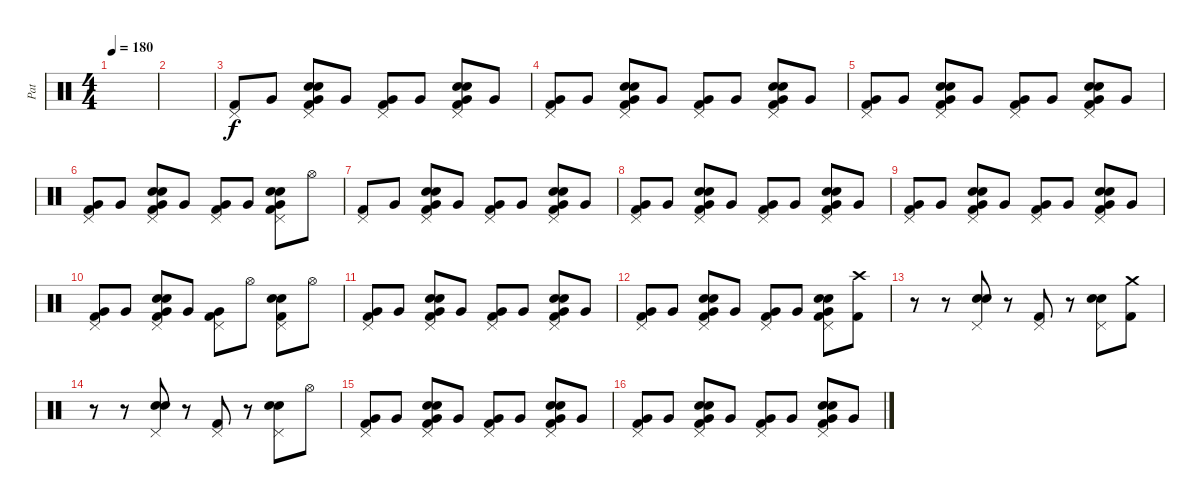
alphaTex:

\track ("Pat" "Pat") {instrument percussion}
\staff {score}
\articulation defaults
\ts (4 4)
\tempo 180
\clef neutral
\ks c
|
|
("Pedal Hi-Hat (hit)" "Kick (hit) 2").8 "Very Low Tom (hit)".8 ("Pedal Hi-Hat (hit)" "Very Low Tom (hit)" "Snare (hit) 2" "Electric Snare (hit)" "Kick (hit) 2").8 "Very Low Tom (hit)".8 ("Pedal Hi-Hat (hit)" "Very Low Tom (hit)" "Kick (hit) 2").8 "Very Low Tom (hit)".8 ("Pedal Hi-Hat (hit)" "Very Low Tom (hit)" "Snare (hit) 2" "Electric Snare (hit)" "Kick (hit) 2").8 "Very Low Tom (hit)".8 |
("Pedal Hi-Hat (hit)" "Very Low Tom (hit)" "Kick (hit) 2").8 "Very Low Tom (hit)".8 ("Pedal Hi-Hat (hit)" "Very Low Tom (hit)" "Snare (hit) 2" "Electric Snare (hit)" "Kick (hit) 2").8 "Very Low Tom (hit)".8 ("Pedal Hi-Hat (hit)" "Very Low Tom (hit)" "Kick (hit) 2").8 "Very Low Tom (hit)".8 ("Pedal Hi-Hat (hit)" "Very Low Tom (hit)" "Snare (hit) 2" "Electric Snare (hit)" "Kick (hit) 2").8 "Very Low Tom (hit)".8 |
("Pedal Hi-Hat (hit)" "Very Low Tom (hit)" "Kick (hit) 2").8 "Very Low Tom (hit)".8 ("Pedal Hi-Hat (hit)" "Very Low Tom (hit)" "Snare (hit) 2" "Electric Snare (hit)" "Kick (hit) 2").8 "Very Low Tom (hit)".8 ("Pedal Hi-Hat (hit)" "Very Low Tom (hit)" "Kick (hit) 2").8 "Very Low Tom (hit)".8 ("Pedal Hi-Hat (hit)" "Very Low Tom (hit)" "Snare (hit) 2" "Electric Snare (hit)" "Kick (hit) 2").8 "Very Low Tom (hit)".8 |
("Pedal Hi-Hat (hit)" "Very Low Tom (hit)" "Kick (hit) 2").8 "Very Low Tom (hit)".8 ("Pedal Hi-Hat (hit)" "Very Low Tom (hit)" "Snare (hit) 2" "Electric Snare (hit)" "Kick (hit) 2").8 "Very Low Tom (hit)".8 ("Pedal Hi-Hat (hit)" "Very Low Tom (hit)" "Kick (hit) 2").8 "Very Low Tom (hit)".8 ("Pedal Hi-Hat (hit)" "Very Low Tom (hit)" "Snare (hit) 2" "Electric Snare (hit)" "Kick (hit) 2").8 "Hi-Hat (open)".8 |
("Pedal Hi-Hat (hit)" "Kick (hit) 2").8 "Very Low Tom (hit)".8 ("Pedal Hi-Hat (hit)" "Very Low Tom (hit)" "Snare (hit) 2" "Electric Snare (hit)" "Kick (hit) 2").8 "Very Low Tom (hit)".8 ("Pedal Hi-Hat (hit)" "Very Low Tom (hit)" "Kick (hit) 2").8 "Very Low Tom (hit)".8 ("Pedal Hi-Hat (hit)" "Very Low Tom (hit)" "Snare (hit) 2" "Electric Snare (hit)" "Kick (hit) 2").8 "Very Low Tom (hit)".8 |
("Pedal Hi-Hat (hit)" "Very Low Tom (hit)" "Kick (hit) 2").8 "Very Low Tom (hit)".8 ("Pedal Hi-Hat (hit)" "Very Low Tom (hit)" "Snare (hit) 2" "Electric Snare (hit)" "Kick (hit) 2").8 "Very Low Tom (hit)".8 ("Pedal Hi-Hat (hit)" "Very Low Tom (hit)" "Kick (hit) 2").8 "Very Low Tom (hit)".8 ("Pedal Hi-Hat (hit)" "Very Low Tom (hit)" "Snare (hit) 2" "Electric Snare (hit)" "Kick (hit) 2").8 "Very Low Tom (hit)".8 |
("Pedal Hi-Hat (hit)" "Very Low Tom (hit)" "Kick (hit) 2").8 "Very Low Tom (hit)".8 ("Pedal Hi-Hat (hit)" "Very Low Tom (hit)" "Snare (hit) 2" "Electric Snare (hit)" "Kick (hit) 2").8 "Very Low Tom (hit)".8 ("Pedal Hi-Hat (hit)" "Very Low Tom (hit)" "Kick (hit) 2").8 "Very Low Tom (hit)".8 ("Pedal Hi-Hat (hit)" "Very Low Tom (hit)" "Snare (hit) 2" "Electric Snare (hit)" "Kick (hit) 2").8 "Very Low Tom (hit)".8 |
("Pedal Hi-Hat (hit)" "Very Low Tom (hit)" "Kick (hit) 2").8 "Very Low Tom (hit)".8 ("Pedal Hi-Hat (hit)" "Very Low Tom (hit)" "Snare (hit) 2" "Electric Snare (hit)" "Kick (hit) 2").8 "Very Low Tom (hit)".8 ("Pedal Hi-Hat (hit)" "Very Low Tom (hit)" "Kick (hit) 2").8 "Hi-Hat (open)".8 ("Pedal Hi-Hat (hit)" "Snare (hit) 2" "Electric Snare (hit)" "Kick (hit) 2").8 "Hi-Hat (open)".8 |
("Pedal Hi-Hat (hit)" "Very Low Tom (hit)" "Kick (hit) 2").8 "Very Low Tom (hit)".8 ("Pedal Hi-Hat (hit)" "Very Low Tom (hit)" "Snare (hit) 2" "Electric Snare (hit)" "Kick (hit) 2").8 "Very Low Tom (hit)".8 ("Pedal Hi-Hat (hit)" "Very Low Tom (hit)" "Kick (hit) 2").8 "Very Low Tom (hit)".8 ("Pedal Hi-Hat (hit)" "Very Low Tom (hit)" "Snare (hit) 2" "Electric Snare (hit)" "Kick (hit) 2").8 "Very Low Tom (hit)".8 |
("Pedal Hi-Hat (hit)" "Very Low Tom (hit)" "Kick (hit) 2").8 "Very Low Tom (hit)".8 ("Pedal Hi-Hat (hit)" "Very Low Tom (hit)" "Snare (hit) 2" "Electric Snare (hit)" "Kick (hit) 2").8 "Very Low Tom (hit)".8 ("Pedal Hi-Hat (hit)" "Very Low Tom (hit)" "Kick (hit) 2").8 "Very Low Tom (hit)".8 ("Pedal Hi-Hat (hit)" "Very Low Tom (hit)" "Snare (hit) 2" "Electric Snare (hit)" "Kick (hit) 2").8 ("Crash high (hit)" "Kick (hit) 2").8 |
r.8 r.8 ("Pedal Hi-Hat (hit)" "Snare (hit) 2" "Electric Snare (hit)").8 r.8 ("Pedal Hi-Hat (hit)" "Kick (hit) 2").8 r.8 ("Pedal Hi-Hat (hit)" "Snare (hit) 2" "Electric Snare (hit)").8 ("Crash medium (hit)" "Kick (hit) 2").8 |
r.8 r.8 ("Pedal Hi-Hat (hit)" "Snare (hit) 2" "Electric Snare (hit)").8 r.8 ("Pedal Hi-Hat (hit)" "Kick (hit) 2").8 r.8 ("Pedal Hi-Hat (hit)" "Snare (hit) 2" "Electric Snare (hit)").8 "Hi-Hat (open)".8 |
("Pedal Hi-Hat (hit)" "Very Low Tom (hit)" "Kick (hit) 2").8 "Very Low Tom (hit)".8 ("Pedal Hi-Hat (hit)" "Very Low Tom (hit)" "Snare (hit) 2" "Electric Snare (hit)" "Kick (hit) 2").8 "Very Low Tom (hit)".8 ("Pedal Hi-Hat (hit)" "Very Low Tom (hit)" "Kick (hit) 2").8 "Very Low Tom (hit)".8 ("Pedal Hi-Hat (hit)" "Very Low Tom (hit)" "Snare (hit) 2" "Electric Snare (hit)" "Kick (hit) 2").8 "Very Low Tom (hit)".8 |
("Pedal Hi-Hat (hit)" "Very Low Tom (hit)" "Kick (hit) 2").8 "Very Low Tom (hit)".8 ("Pedal Hi-Hat (hit)" "Very Low Tom (hit)" "Snare (hit) 2" "Electric Snare (hit)" "Kick (hit) 2").8 "Very Low Tom (hit)".8 ("Pedal Hi-Hat (hit)" "Very Low Tom (hit)" "Kick (hit) 2").8 "Very Low Tom (hit)".8 ("Pedal Hi-Hat (hit)" "Very Low Tom (hit)" "Snare (hit) 2" "Electric Snare (hit)" "Kick (hit) 2").8 "Very Low Tom (hit)".8
